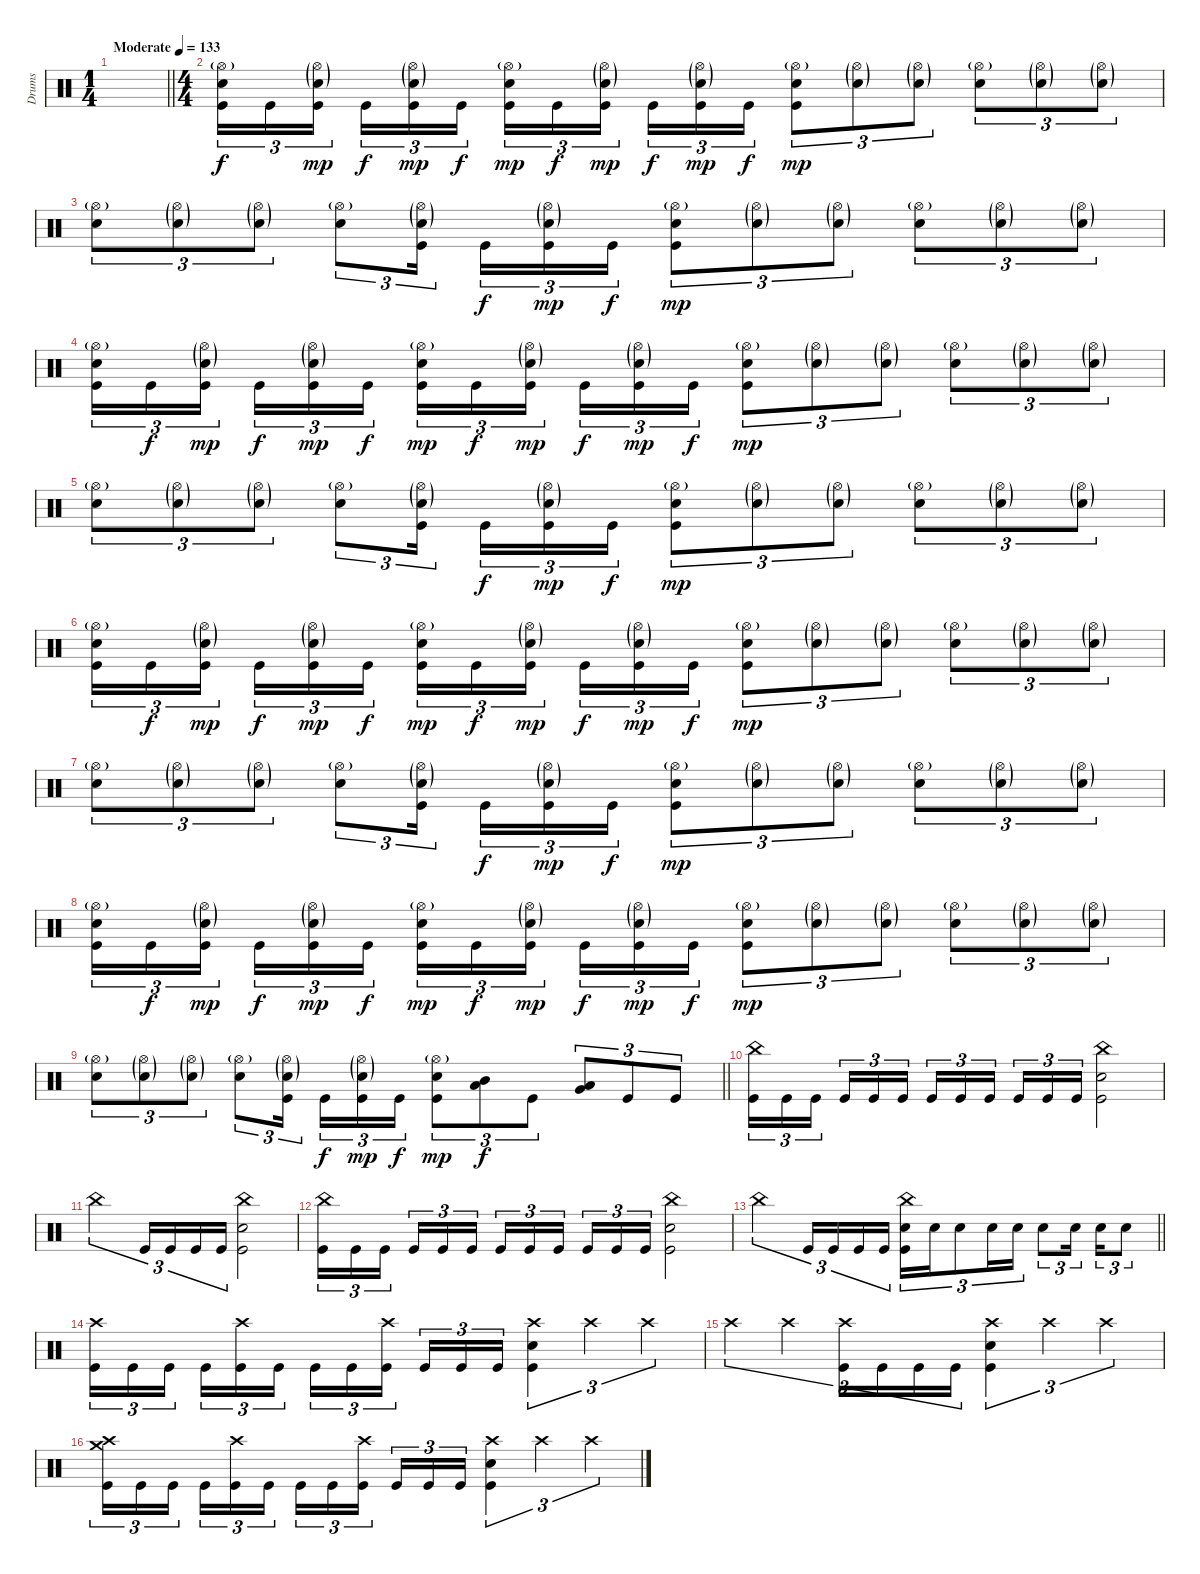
\track ("Drums" "Drums") {instrument percussion}
\staff
\articulation defaults
\ts (1 4)
\tempo (133 "Moderate")
\clef neutral
\barLineRight lightlight
\ks c
|
\ts (4 4)
("Hi-Hat (open)"{g} "Electric Snare (hit)" "Kick (hit)").16{tu (3 2)} "Kick (hit)".16{tu (3 2) dy f} ("Hi-Hat (open)"{g} "Electric Snare (hit)"{g} "Kick (hit)").16{tu (3 2) dy mp beam splitsecondary} "Kick (hit)".16{tu (3 2) dy f} ("Hi-Hat (open)"{g} "Electric Snare (hit)"{g} "Kick (hit)").16{tu (3 2) dy mp} "Kick (hit)".16{tu (3 2) dy f} ("Hi-Hat (open)"{g} "Electric Snare (hit)" "Kick (hit)").16{tu (3 2) dy mp} "Kick (hit)".16{tu (3 2) dy f} ("Hi-Hat (open)"{g} "Electric Snare (hit)"{g} "Kick (hit)").16{tu (3 2) dy mp beam splitsecondary} "Kick (hit)".16{tu (3 2) dy f} ("Hi-Hat (open)"{g} "Electric Snare (hit)"{g} "Kick (hit)").16{tu (3 2) dy mp} "Kick (hit)".16{tu (3 2) dy f} ("Hi-Hat (open)"{g} "Electric Snare (hit)" "Kick (hit)").8{tu (3 2) dy mp} ("Hi-Hat (open)"{g} "Electric Snare (hit)"{g}).8{tu (3 2)} ("Hi-Hat (open)"{g} "Electric Snare (hit)"{g}).8{tu (3 2)} ("Hi-Hat (open)"{g} "Electric Snare (hit)").8{tu (3 2)} ("Hi-Hat (open)"{g} "Electric Snare (hit)"{g}).8{tu (3 2)} ("Hi-Hat (open)"{g} "Electric Snare (hit)"{g}).8{tu (3 2)} |
("Hi-Hat (open)"{g} "Electric Snare (hit)").8{tu (3 2)} ("Hi-Hat (open)"{g} "Electric Snare (hit)"{g}).8{tu (3 2)} ("Hi-Hat (open)"{g} "Electric Snare (hit)"{g}).8{tu (3 2)} ("Hi-Hat (open)"{g} "Electric Snare (hit)").8{tu (3 2)} ("Hi-Hat (open)"{g} "Electric Snare (hit)"{g} "Kick (hit)").16{tu (3 2) beam splitsecondary} "Kick (hit)".16{tu (3 2) dy f} ("Hi-Hat (open)"{g} "Electric Snare (hit)"{g} "Kick (hit)").16{tu (3 2) dy mp} "Kick (hit)".16{tu (3 2) dy f} ("Hi-Hat (open)"{g} "Electric Snare (hit)" "Kick (hit)").8{tu (3 2) dy mp} ("Hi-Hat (open)"{g} "Electric Snare (hit)"{g}).8{tu (3 2)} ("Hi-Hat (open)"{g} "Electric Snare (hit)"{g}).8{tu (3 2)} ("Hi-Hat (open)"{g} "Electric Snare (hit)").8{tu (3 2)} ("Hi-Hat (open)"{g} "Electric Snare (hit)"{g}).8{tu (3 2)} ("Hi-Hat (open)"{g} "Electric Snare (hit)"{g}).8{tu (3 2)} |
("Hi-Hat (open)"{g} "Electric Snare (hit)" "Kick (hit)").16{tu (3 2)} "Kick (hit)".16{tu (3 2) dy f} ("Hi-Hat (open)"{g} "Electric Snare (hit)"{g} "Kick (hit)").16{tu (3 2) dy mp beam splitsecondary} "Kick (hit)".16{tu (3 2) dy f} ("Hi-Hat (open)"{g} "Electric Snare (hit)"{g} "Kick (hit)").16{tu (3 2) dy mp} "Kick (hit)".16{tu (3 2) dy f} ("Hi-Hat (open)"{g} "Electric Snare (hit)" "Kick (hit)").16{tu (3 2) dy mp} "Kick (hit)".16{tu (3 2) dy f} ("Hi-Hat (open)"{g} "Electric Snare (hit)"{g} "Kick (hit)").16{tu (3 2) dy mp beam splitsecondary} "Kick (hit)".16{tu (3 2) dy f} ("Hi-Hat (open)"{g} "Electric Snare (hit)"{g} "Kick (hit)").16{tu (3 2) dy mp} "Kick (hit)".16{tu (3 2) dy f} ("Hi-Hat (open)"{g} "Electric Snare (hit)" "Kick (hit)").8{tu (3 2) dy mp} ("Hi-Hat (open)"{g} "Electric Snare (hit)"{g}).8{tu (3 2)} ("Hi-Hat (open)"{g} "Electric Snare (hit)"{g}).8{tu (3 2)} ("Hi-Hat (open)"{g} "Electric Snare (hit)").8{tu (3 2)} ("Hi-Hat (open)"{g} "Electric Snare (hit)"{g}).8{tu (3 2)} ("Hi-Hat (open)"{g} "Electric Snare (hit)"{g}).8{tu (3 2)} |
("Hi-Hat (open)"{g} "Electric Snare (hit)").8{tu (3 2)} ("Hi-Hat (open)"{g} "Electric Snare (hit)"{g}).8{tu (3 2)} ("Hi-Hat (open)"{g} "Electric Snare (hit)"{g}).8{tu (3 2)} ("Hi-Hat (open)"{g} "Electric Snare (hit)").8{tu (3 2)} ("Hi-Hat (open)"{g} "Electric Snare (hit)"{g} "Kick (hit)").16{tu (3 2) beam splitsecondary} "Kick (hit)".16{tu (3 2) dy f} ("Hi-Hat (open)"{g} "Electric Snare (hit)"{g} "Kick (hit)").16{tu (3 2) dy mp} "Kick (hit)".16{tu (3 2) dy f} ("Hi-Hat (open)"{g} "Electric Snare (hit)" "Kick (hit)").8{tu (3 2) dy mp} ("Hi-Hat (open)"{g} "Electric Snare (hit)"{g}).8{tu (3 2)} ("Hi-Hat (open)"{g} "Electric Snare (hit)"{g}).8{tu (3 2)} ("Hi-Hat (open)"{g} "Electric Snare (hit)").8{tu (3 2)} ("Hi-Hat (open)"{g} "Electric Snare (hit)"{g}).8{tu (3 2)} ("Hi-Hat (open)"{g} "Electric Snare (hit)"{g}).8{tu (3 2)} |
("Hi-Hat (open)"{g} "Electric Snare (hit)" "Kick (hit)").16{tu (3 2)} "Kick (hit)".16{tu (3 2) dy f} ("Hi-Hat (open)"{g} "Electric Snare (hit)"{g} "Kick (hit)").16{tu (3 2) dy mp beam splitsecondary} "Kick (hit)".16{tu (3 2) dy f} ("Hi-Hat (open)"{g} "Electric Snare (hit)"{g} "Kick (hit)").16{tu (3 2) dy mp} "Kick (hit)".16{tu (3 2) dy f} ("Hi-Hat (open)"{g} "Electric Snare (hit)" "Kick (hit)").16{tu (3 2) dy mp} "Kick (hit)".16{tu (3 2) dy f} ("Hi-Hat (open)"{g} "Electric Snare (hit)"{g} "Kick (hit)").16{tu (3 2) dy mp beam splitsecondary} "Kick (hit)".16{tu (3 2) dy f} ("Hi-Hat (open)"{g} "Electric Snare (hit)"{g} "Kick (hit)").16{tu (3 2) dy mp} "Kick (hit)".16{tu (3 2) dy f} ("Hi-Hat (open)"{g} "Electric Snare (hit)" "Kick (hit)").8{tu (3 2) dy mp} ("Hi-Hat (open)"{g} "Electric Snare (hit)"{g}).8{tu (3 2)} ("Hi-Hat (open)"{g} "Electric Snare (hit)"{g}).8{tu (3 2)} ("Hi-Hat (open)"{g} "Electric Snare (hit)").8{tu (3 2)} ("Hi-Hat (open)"{g} "Electric Snare (hit)"{g}).8{tu (3 2)} ("Hi-Hat (open)"{g} "Electric Snare (hit)"{g}).8{tu (3 2)} |
("Hi-Hat (open)"{g} "Electric Snare (hit)").8{tu (3 2)} ("Hi-Hat (open)"{g} "Electric Snare (hit)"{g}).8{tu (3 2)} ("Hi-Hat (open)"{g} "Electric Snare (hit)"{g}).8{tu (3 2)} ("Hi-Hat (open)"{g} "Electric Snare (hit)").8{tu (3 2)} ("Hi-Hat (open)"{g} "Electric Snare (hit)"{g} "Kick (hit)").16{tu (3 2) beam splitsecondary} "Kick (hit)".16{tu (3 2) dy f} ("Hi-Hat (open)"{g} "Electric Snare (hit)"{g} "Kick (hit)").16{tu (3 2) dy mp} "Kick (hit)".16{tu (3 2) dy f} ("Hi-Hat (open)"{g} "Electric Snare (hit)" "Kick (hit)").8{tu (3 2) dy mp} ("Hi-Hat (open)"{g} "Electric Snare (hit)"{g}).8{tu (3 2)} ("Hi-Hat (open)"{g} "Electric Snare (hit)"{g}).8{tu (3 2)} ("Hi-Hat (open)"{g} "Electric Snare (hit)").8{tu (3 2)} ("Hi-Hat (open)"{g} "Electric Snare (hit)"{g}).8{tu (3 2)} ("Hi-Hat (open)"{g} "Electric Snare (hit)"{g}).8{tu (3 2)} |
("Hi-Hat (open)"{g} "Electric Snare (hit)" "Kick (hit)").16{tu (3 2)} "Kick (hit)".16{tu (3 2) dy f} ("Hi-Hat (open)"{g} "Electric Snare (hit)"{g} "Kick (hit)").16{tu (3 2) dy mp beam splitsecondary} "Kick (hit)".16{tu (3 2) dy f} ("Hi-Hat (open)"{g} "Electric Snare (hit)"{g} "Kick (hit)").16{tu (3 2) dy mp} "Kick (hit)".16{tu (3 2) dy f} ("Hi-Hat (open)"{g} "Electric Snare (hit)" "Kick (hit)").16{tu (3 2) dy mp} "Kick (hit)".16{tu (3 2) dy f} ("Hi-Hat (open)"{g} "Electric Snare (hit)"{g} "Kick (hit)").16{tu (3 2) dy mp beam splitsecondary} "Kick (hit)".16{tu (3 2) dy f} ("Hi-Hat (open)"{g} "Electric Snare (hit)"{g} "Kick (hit)").16{tu (3 2) dy mp} "Kick (hit)".16{tu (3 2) dy f} ("Hi-Hat (open)"{g} "Electric Snare (hit)" "Kick (hit)").8{tu (3 2) dy mp} ("Hi-Hat (open)"{g} "Electric Snare (hit)"{g}).8{tu (3 2)} ("Hi-Hat (open)"{g} "Electric Snare (hit)"{g}).8{tu (3 2)} ("Hi-Hat (open)"{g} "Electric Snare (hit)").8{tu (3 2)} ("Hi-Hat (open)"{g} "Electric Snare (hit)"{g}).8{tu (3 2)} ("Hi-Hat (open)"{g} "Electric Snare (hit)"{g}).8{tu (3 2)} |
\barLineRight lightlight
("Hi-Hat (open)"{g} "Electric Snare (hit)").8{tu (3 2)} ("Hi-Hat (open)"{g} "Electric Snare (hit)"{g}).8{tu (3 2)} ("Hi-Hat (open)"{g} "Electric Snare (hit)"{g}).8{tu (3 2)} ("Hi-Hat (open)"{g} "Electric Snare (hit)").8{tu (3 2)} ("Hi-Hat (open)"{g} "Electric Snare (hit)"{g} "Kick (hit)").16{tu (3 2) beam splitsecondary} "Kick (hit)".16{tu (3 2) dy f} ("Hi-Hat (open)"{g} "Electric Snare (hit)"{g} "Kick (hit)").16{tu (3 2) dy mp} "Kick (hit)".16{tu (3 2) dy f} ("Hi-Hat (open)"{g} "Electric Snare (hit)" "Kick (hit)").8{tu (3 2) dy mp} ("Mid Tom (hit)" "Low Tom (hit)").8{tu (3 2) dy f} "Kick (hit)".8{tu (3 2)} ("Low Tom (hit)" "Very Low Tom (hit)").8{tu (3 2)} "Kick (hit)".8{tu (3 2)} "Kick (hit)".8{tu (3 2)} |
("China (hit)" "Kick (hit)").16{tu (3 2)} "Kick (hit)".16{tu (3 2)} "Kick (hit)".16{tu (3 2) beam splitsecondary} "Kick (hit)".16{tu (3 2)} "Kick (hit)".16{tu (3 2)} "Kick (hit)".16{tu (3 2)} "Kick (hit)".16{tu (3 2)} "Kick (hit)".16{tu (3 2)} "Kick (hit)".16{tu (3 2) beam splitsecondary} "Kick (hit)".16{tu (3 2)} "Kick (hit)".16{tu (3 2)} "Kick (hit)".16{tu (3 2)} ("China (hit)" "Electric Snare (hit)" "Kick (hit)").2 |
"China (hit)".2{tu (3 2)} "Kick (hit)".16{tu (3 2)} "Kick (hit)".16{tu (3 2)} "Kick (hit)".16{tu (3 2)} "Kick (hit)".16{tu (3 2)} ("China (hit)" "Electric Snare (hit)" "Kick (hit)").2 |
("China (hit)" "Kick (hit)").16{tu (3 2)} "Kick (hit)".16{tu (3 2)} "Kick (hit)".16{tu (3 2) beam splitsecondary} "Kick (hit)".16{tu (3 2)} "Kick (hit)".16{tu (3 2)} "Kick (hit)".16{tu (3 2)} "Kick (hit)".16{tu (3 2)} "Kick (hit)".16{tu (3 2)} "Kick (hit)".16{tu (3 2) beam splitsecondary} "Kick (hit)".16{tu (3 2)} "Kick (hit)".16{tu (3 2)} "Kick (hit)".16{tu (3 2)} ("China (hit)" "Electric Snare (hit)" "Kick (hit)").2 |
\barLineRight lightlight "China (hit)".2{tu (3 2)} "Kick (hit)".16{tu (3 2)} "Kick (hit)".16{tu (3 2)} "Kick (hit)".16{tu (3 2)} "Kick (hit)".16{tu (3 2)}
("China (hit)" "Electric Snare (hit)" "Kick (hit)").16{tu (3 2)} "Electric Snare (hit)".16{tu (3 2)} "Electric Snare (hit)".8{tu (3 2)} "Electric Snare (hit)".16{tu (3 2)} "Electric Snare (hit)".16{tu (3 2)} "Electric Snare (hit)".8{tu (3 2)} "Electric Snare (hit)".16{tu (3 2) beam splitsecondary} "Electric Snare (hit)".16{tu (3 2)} "Electric Snare (hit)".8{tu (3 2)} |
("Crash high (hit)" "Kick (hit)").16{tu (3 2)} "Kick (hit)".16{tu (3 2)} "Kick (hit)".16{tu (3 2) beam splitsecondary} "Kick (hit)".16{tu (3 2)} ("Crash high (hit)" "Kick (hit)").16{tu (3 2)} "Kick (hit)".16{tu (3 2)} "Kick (hit)".16{tu (3 2)} "Kick (hit)".16{tu (3 2)} ("Crash high (hit)" "Kick (hit)").16{tu (3 2) beam splitsecondary} "Kick (hit)".16{tu (3 2)} "Kick (hit)".16{tu (3 2)} "Kick (hit)".16{tu (3 2)} ("Crash high (hit)" "Electric Snare (hit)" "Kick (hit)").4{tu (3 2)} "Crash high (hit)".4{tu (3 2)} "Crash high (hit)".4{tu (3 2)} |
"Crash high (hit)".4{tu (3 2)} "Crash high (hit)".4{tu (3 2)} ("Crash high (hit)" "Kick (hit)").16{tu (3 2)} "Kick (hit)".16{tu (3 2)} "Kick (hit)".16{tu (3 2)} "Kick (hit)".16{tu (3 2)} ("Crash high (hit)" "Electric Snare (hit)" "Kick (hit)").4{tu (3 2)} "Crash high (hit)".4{tu (3 2)} "Crash high (hit)".4{tu (3 2)} |
("Crash high (hit)" "Crash medium (hit)" "Kick (hit)").16{tu (3 2)} "Kick (hit)".16{tu (3 2)} "Kick (hit)".16{tu (3 2) beam splitsecondary} "Kick (hit)".16{tu (3 2)} ("Crash high (hit)" "Kick (hit)").16{tu (3 2)} "Kick (hit)".16{tu (3 2)} "Kick (hit)".16{tu (3 2)} "Kick (hit)".16{tu (3 2)} ("Crash high (hit)" "Kick (hit)").16{tu (3 2) beam splitsecondary} "Kick (hit)".16{tu (3 2)} "Kick (hit)".16{tu (3 2)} "Kick (hit)".16{tu (3 2)} ("Crash high (hit)" "Electric Snare (hit)" "Kick (hit)").4{tu (3 2)} "Crash high (hit)".4{tu (3 2)} "Crash high (hit)".4{tu (3 2)}
